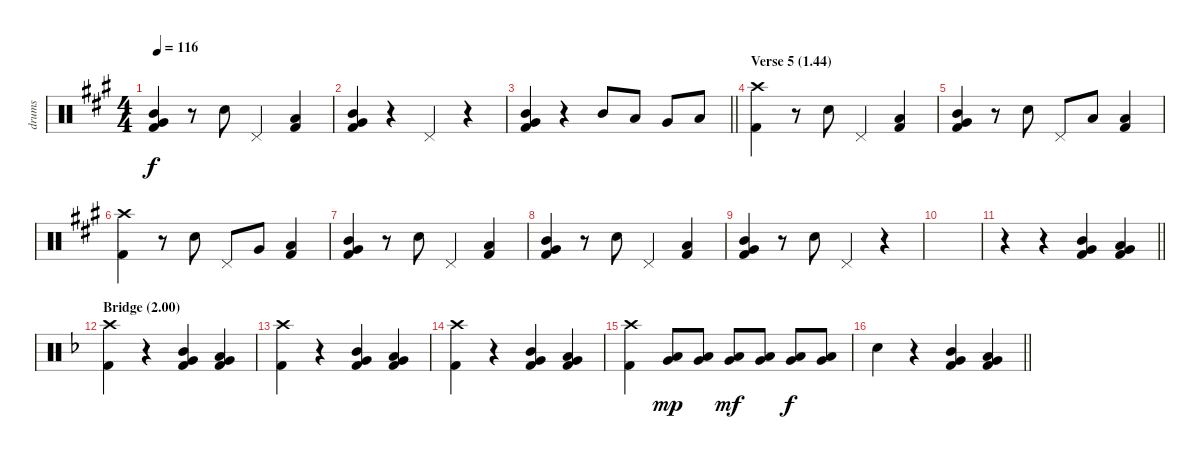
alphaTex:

\track ("drums" "drums") {instrument percussion}
\staff {score}
\articulation defaults
\ts (4 4)
\tempo 116
\clef neutral
\ks a
("Mid Tom (hit)" "Very Low Tom (hit)" "Kick (hit) 2").4{dy f} r.8 "Electric Snare (hit)".8 "Pedal Hi-Hat (hit)".4 ("Low Tom (hit)" "Kick (hit) 2").4 |
("Mid Tom (hit)" "Very Low Tom (hit)" "Kick (hit) 2").4 r.4 "Pedal Hi-Hat (hit)".4 r.4 |
\barLineRight lightlight
("Mid Tom (hit)" "Very Low Tom (hit)" "Kick (hit) 2").4 r.4 "Mid Tom (hit)".8 "Low Tom (hit)".8 "Very Low Tom (hit)".8 "Low Tom (hit)".8 |
\section ("" "Verse 5 (1.44)")
("Crash high (hit)" "Kick (hit) 2").4 r.8 "Electric Snare (hit)".8 "Pedal Hi-Hat (hit)".4 ("Low Tom (hit)" "Kick (hit) 2").4 |
("Mid Tom (hit)" "Very Low Tom (hit)" "Kick (hit) 2").4 r.8 "Electric Snare (hit)".8 "Pedal Hi-Hat (hit)".8 "Low Tom (hit)".8 ("Low Tom (hit)" "Kick (hit) 2").4 |
("Crash high (hit)" "Kick (hit) 2").4 r.8 "Electric Snare (hit)".8 "Pedal Hi-Hat (hit)".8 "Very Low Tom (hit)".8 ("Low Tom (hit)" "Kick (hit) 2").4 |
("Mid Tom (hit)" "Very Low Tom (hit)" "Kick (hit) 2").4 r.8 "Electric Snare (hit)".8 "Pedal Hi-Hat (hit)".4 ("Low Tom (hit)" "Kick (hit) 2").4 |
("Mid Tom (hit)" "Very Low Tom (hit)" "Kick (hit) 2").4 r.8 "Electric Snare (hit)".8 "Pedal Hi-Hat (hit)".4 ("Low Tom (hit)" "Kick (hit) 2").4 |
("Mid Tom (hit)" "Very Low Tom (hit)" "Kick (hit) 2").4 r.8 "Electric Snare (hit)".8 "Pedal Hi-Hat (hit)".4 r.4 |
|
\barLineRight lightlight
r.4 r.4 ("Mid Tom (hit)" "Very Low Tom (hit)" "Kick (hit) 2").4 ("Low Tom (hit)" "Very Low Tom (hit)" "Kick (hit) 2").4 |
\section ("" "Bridge (2.00)")
\ks f
("Crash high (hit)" "Kick (hit) 2").4 r.4 ("Mid Tom (hit)" "Very Low Tom (hit)" "Kick (hit) 2").4 ("Low Tom (hit)" "Very Low Tom (hit)" "Kick (hit) 2").4 |
("Crash high (hit)" "Kick (hit) 2").4 r.4 ("Mid Tom (hit)" "Very Low Tom (hit)" "Kick (hit) 2").4 ("Low Tom (hit)" "Very Low Tom (hit)" "Kick (hit) 2").4 |
("Crash high (hit)" "Kick (hit) 2").4 r.4 ("Mid Tom (hit)" "Very Low Tom (hit)" "Kick (hit) 2").4 ("Low Tom (hit)" "Very Low Tom (hit)" "Kick (hit) 2").4 |
("Crash high (hit)" "Kick (hit) 2").4 ("Low Tom (hit)" "Very Low Tom (hit)").8{dy mp} ("Low Tom (hit)" "Very Low Tom (hit)").8 ("Low Tom (hit)" "Very Low Tom (hit)").8{dy mf} ("Low Tom (hit)" "Very Low Tom (hit)").8 ("Low Tom (hit)" "Very Low Tom (hit)").8{dy f} ("Low Tom (hit)" "Very Low Tom (hit)").8 |
\barLineRight lightlight "Electric Snare (hit)".4
r.4 ("Mid Tom (hit)" "Very Low Tom (hit)" "Kick (hit) 2").4 ("Low Tom (hit)" "Very Low Tom (hit)" "Kick (hit) 2").4
